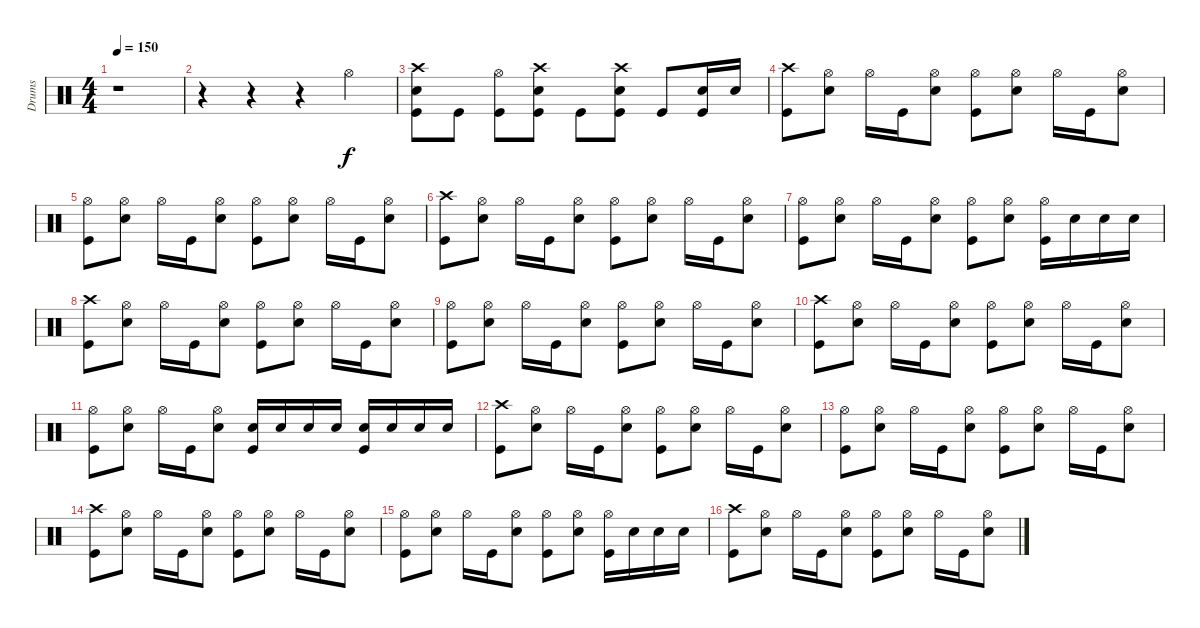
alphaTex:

\track ("Drums" "Drums") {instrument percussion}
\staff {score}
\articulation defaults
\ts (4 4)
\tempo 150
\clef neutral
\ks c
r.1{dy f} |
r.4 r.4 r.4 "Hi-Hat (open)".4 |
("Crash high (hit)" "Snare (hit) 2" "Kick (hit)").8 "Kick (hit)".8 ("Hi-Hat (open)" "Kick (hit)").8 ("Crash high (hit)" "Snare (hit) 2" "Kick (hit)").8 "Kick (hit)".8 ("Crash high (hit)" "Snare (hit) 2" "Kick (hit)").8 "Kick (hit)".8 ("Snare (hit) 2" "Kick (hit)").16 "Snare (hit) 2".16 |
("Crash high (hit)" "Kick (hit)").8 ("Hi-Hat (open)" "Snare (hit) 2").8 "Hi-Hat (open)".16 "Kick (hit)".16 ("Hi-Hat (open)" "Snare (hit) 2").8 ("Hi-Hat (open)" "Kick (hit)").8 ("Hi-Hat (open)" "Snare (hit) 2").8 "Hi-Hat (open)".16 "Kick (hit)".16 ("Hi-Hat (open)" "Snare (hit) 2").8 |
("Hi-Hat (open)" "Kick (hit)").8 ("Hi-Hat (open)" "Snare (hit) 2").8 "Hi-Hat (open)".16 "Kick (hit)".16 ("Hi-Hat (open)" "Snare (hit) 2").8 ("Hi-Hat (open)" "Kick (hit)").8 ("Hi-Hat (open)" "Snare (hit) 2").8 "Hi-Hat (open)".16 "Kick (hit)".16 ("Hi-Hat (open)" "Snare (hit) 2").8 |
("Crash high (hit)" "Kick (hit)").8 ("Hi-Hat (open)" "Snare (hit) 2").8 "Hi-Hat (open)".16 "Kick (hit)".16 ("Hi-Hat (open)" "Snare (hit) 2").8 ("Hi-Hat (open)" "Kick (hit)").8 ("Hi-Hat (open)" "Snare (hit) 2").8 "Hi-Hat (open)".16 "Kick (hit)".16 ("Hi-Hat (open)" "Snare (hit) 2").8 |
("Hi-Hat (open)" "Kick (hit)").8 ("Hi-Hat (open)" "Snare (hit) 2").8 "Hi-Hat (open)".16 "Kick (hit)".16 ("Hi-Hat (open)" "Snare (hit) 2").8 ("Hi-Hat (open)" "Kick (hit)").8 ("Hi-Hat (open)" "Snare (hit) 2").8 ("Hi-Hat (open)" "Kick (hit)").16 "Snare (hit) 2".16 "Snare (hit) 2".16 "Snare (hit) 2".16 |
("Crash high (hit)" "Kick (hit)").8 ("Hi-Hat (open)" "Snare (hit) 2").8 "Hi-Hat (open)".16 "Kick (hit)".16 ("Hi-Hat (open)" "Snare (hit) 2").8 ("Hi-Hat (open)" "Kick (hit)").8 ("Hi-Hat (open)" "Snare (hit) 2").8 "Hi-Hat (open)".16 "Kick (hit)".16 ("Hi-Hat (open)" "Snare (hit) 2").8 |
("Hi-Hat (open)" "Kick (hit)").8 ("Hi-Hat (open)" "Snare (hit) 2").8 "Hi-Hat (open)".16 "Kick (hit)".16 ("Hi-Hat (open)" "Snare (hit) 2").8 ("Hi-Hat (open)" "Kick (hit)").8 ("Hi-Hat (open)" "Snare (hit) 2").8 "Hi-Hat (open)".16 "Kick (hit)".16 ("Hi-Hat (open)" "Snare (hit) 2").8 |
("Crash high (hit)" "Kick (hit)").8 ("Hi-Hat (open)" "Snare (hit) 2").8 "Hi-Hat (open)".16 "Kick (hit)".16 ("Hi-Hat (open)" "Snare (hit) 2").8 ("Hi-Hat (open)" "Kick (hit)").8 ("Hi-Hat (open)" "Snare (hit) 2").8 "Hi-Hat (open)".16 "Kick (hit)".16 ("Hi-Hat (open)" "Snare (hit) 2").8 |
("Hi-Hat (open)" "Kick (hit)").8 ("Hi-Hat (open)" "Snare (hit) 2").8 "Hi-Hat (open)".16 "Kick (hit)".16 ("Hi-Hat (open)" "Snare (hit) 2").8 ("Snare (hit) 2" "Kick (hit)").16 "Snare (hit) 2".16 "Snare (hit) 2".16 "Snare (hit) 2".16 ("Snare (hit) 2" "Kick (hit)").16 "Snare (hit) 2".16 "Snare (hit) 2".16 "Snare (hit) 2".16 |
("Crash high (hit)" "Kick (hit)").8 ("Hi-Hat (open)" "Snare (hit) 2").8 "Hi-Hat (open)".16 "Kick (hit)".16 ("Hi-Hat (open)" "Snare (hit) 2").8 ("Hi-Hat (open)" "Kick (hit)").8 ("Hi-Hat (open)" "Snare (hit) 2").8 "Hi-Hat (open)".16 "Kick (hit)".16 ("Hi-Hat (open)" "Snare (hit) 2").8 |
("Hi-Hat (open)" "Kick (hit)").8 ("Hi-Hat (open)" "Snare (hit) 2").8 "Hi-Hat (open)".16 "Kick (hit)".16 ("Hi-Hat (open)" "Snare (hit) 2").8 ("Hi-Hat (open)" "Kick (hit)").8 ("Hi-Hat (open)" "Snare (hit) 2").8 "Hi-Hat (open)".16 "Kick (hit)".16 ("Hi-Hat (open)" "Snare (hit) 2").8 |
("Crash high (hit)" "Kick (hit)").8 ("Hi-Hat (open)" "Snare (hit) 2").8 "Hi-Hat (open)".16 "Kick (hit)".16 ("Hi-Hat (open)" "Snare (hit) 2").8 ("Hi-Hat (open)" "Kick (hit)").8 ("Hi-Hat (open)" "Snare (hit) 2").8 "Hi-Hat (open)".16 "Kick (hit)".16 ("Hi-Hat (open)" "Snare (hit) 2").8 |
("Hi-Hat (open)" "Kick (hit)").8 ("Hi-Hat (open)" "Snare (hit) 2").8 "Hi-Hat (open)".16 "Kick (hit)".16 ("Hi-Hat (open)" "Snare (hit) 2").8 ("Hi-Hat (open)" "Kick (hit)").8 ("Hi-Hat (open)" "Snare (hit) 2").8 ("Hi-Hat (open)" "Kick (hit)").16 "Snare (hit) 2".16 "Snare (hit) 2".16 "Snare (hit) 2".16 |
("Crash high (hit)" "Kick (hit)").8 ("Hi-Hat (open)" "Snare (hit) 2").8 "Hi-Hat (open)".16 "Kick (hit)".16 ("Hi-Hat (open)" "Snare (hit) 2").8 ("Hi-Hat (open)" "Kick (hit)").8 ("Hi-Hat (open)" "Snare (hit) 2").8 "Hi-Hat (open)".16 "Kick (hit)".16 ("Hi-Hat (open)" "Snare (hit) 2").8
